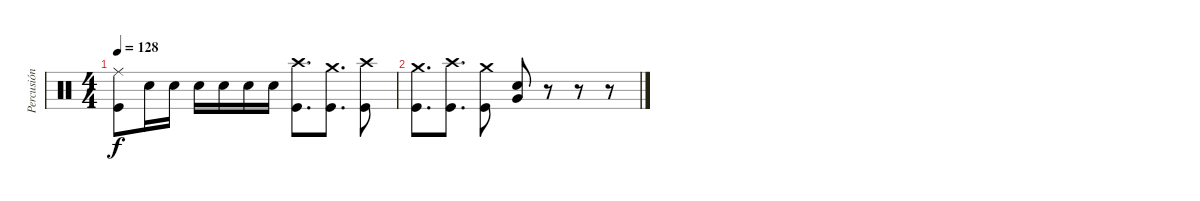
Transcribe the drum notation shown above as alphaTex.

\track ("Percusión" "Percusión") {instrument percussion}
\staff {score}
\articulation defaults
\ts (4 4)
\tempo 128
\clef neutral
\ks c
("Ride (middle)" "Kick (hit)").8{dy f} "Snare (hit) 2".16 "Snare (hit) 2".16 "Snare (hit) 2".16 "Snare (hit) 2".16 "Snare (hit) 2".16 "Snare (hit) 2".16 ("Crash high (hit)" "Kick (hit)").8{d} ("Crash medium (hit)" "Kick (hit)").8{d} ("Crash high (hit)" "Kick (hit)").8 |
("Crash medium (hit)" "Kick (hit)").8{d} ("Crash high (hit)" "Kick (hit)").8{d} ("Crash medium (hit)" "Kick (hit)").8 ("Snare (hit) 2" "Very Low Tom (hit)").8 r.8 r.8 r.8
